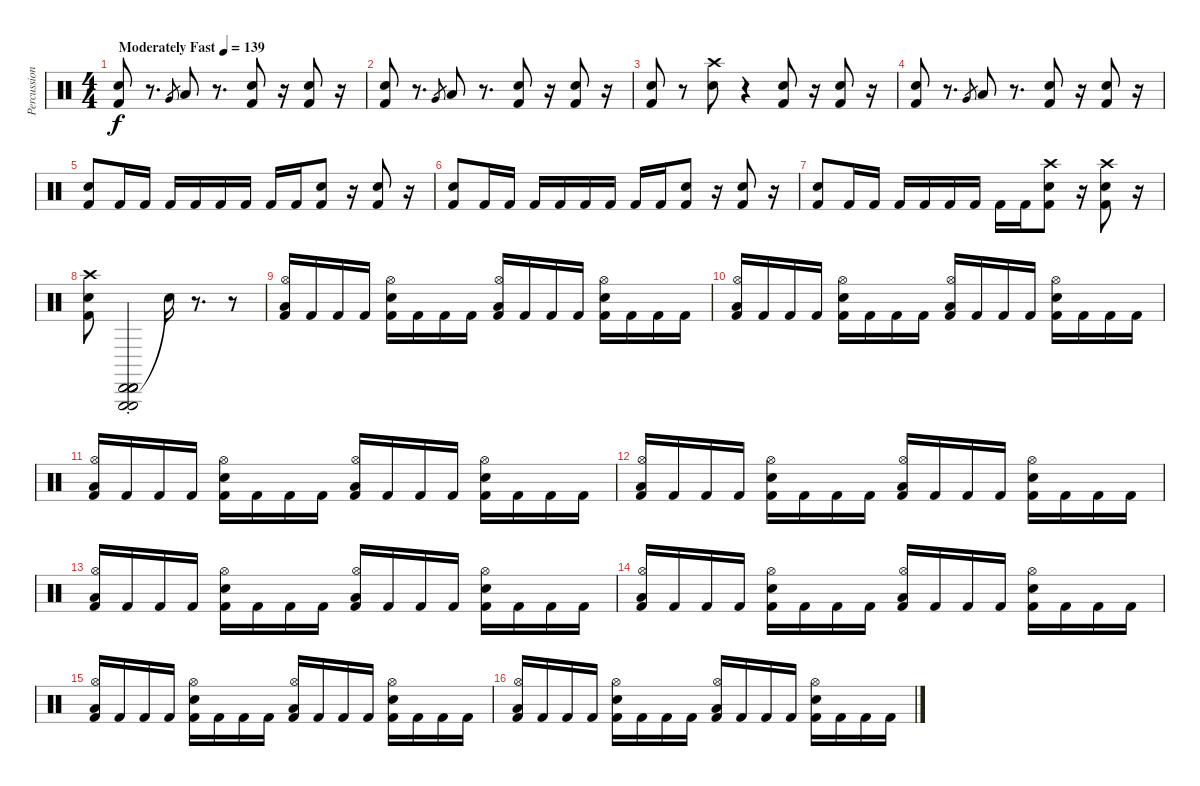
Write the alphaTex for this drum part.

\track ("Percussions" "Percussion") {instrument percussion}
\staff {score}
\articulation defaults
\ts (4 4)
\tempo (139 "Moderately Fast")
\clef neutral
\ks c
("Electric Snare (hit)" "Kick (hit) 2").8{dy f} r.8{d} "Very Low Tom (hit)"{sl}.8{gr} "Low Tom (hit)".8 r.8{d} ("Electric Snare (hit)" "Kick (hit) 2").8 r.16 ("Electric Snare (hit)" "Kick (hit) 2").8 r.16 |
("Electric Snare (hit)" "Kick (hit) 2").8 r.8{d} "Very Low Tom (hit)"{sl}.8{gr} "Low Tom (hit)".8 r.8{d} ("Electric Snare (hit)" "Kick (hit) 2").8 r.16 ("Electric Snare (hit)" "Kick (hit) 2").8 r.16 |
("Electric Snare (hit)" "Kick (hit) 2").8 r.8 ("Crash high (hit)" "Electric Snare (hit)").8 r.4 ("Electric Snare (hit)" "Kick (hit) 2").8 r.16 ("Electric Snare (hit)" "Kick (hit) 2").8 r.16 |
("Electric Snare (hit)" "Kick (hit) 2").8 r.8{d} "Very Low Tom (hit)"{sl}.8{gr} "Low Tom (hit)".8 r.8{d} ("Electric Snare (hit)" "Kick (hit) 2").8 r.16 ("Electric Snare (hit)" "Kick (hit) 2").8 r.16 |
("Electric Snare (hit)" "Kick (hit) 2").8 "Kick (hit) 2".16 "Kick (hit) 2".16 "Kick (hit) 2".16 "Kick (hit) 2".16 "Kick (hit) 2".16 "Kick (hit) 2".16 "Kick (hit) 2".16 "Kick (hit) 2".16 ("Electric Snare (hit)" "Kick (hit) 2").8 r.16 ("Electric Snare (hit)" "Kick (hit) 2").8 r.16 |
("Electric Snare (hit)" "Kick (hit) 2").8 "Kick (hit) 2".16 "Kick (hit) 2".16 "Kick (hit) 2".16 "Kick (hit) 2".16 "Kick (hit) 2".16 "Kick (hit) 2".16 "Kick (hit) 2".16 "Kick (hit) 2".16 ("Electric Snare (hit)" "Kick (hit) 2").8 r.16 ("Electric Snare (hit)" "Kick (hit) 2").8 r.16 |
("Electric Snare (hit)" "Kick (hit) 2").8 "Kick (hit) 2".16 "Kick (hit) 2".16 "Kick (hit) 2".16 "Kick (hit) 2".16 "Kick (hit) 2".16 "Kick (hit) 2".16 "Kick (hit) 2".16 "Kick (hit) 2".16 ("Crash high (hit)" "Electric Snare (hit)" "Kick (hit) 2").8 r.16 ("Crash high (hit)" "Electric Snare (hit)" "Kick (hit) 2").8 r.16 |
("Crash high (hit)" "Electric Snare (hit)" "Kick (hit) 2").8 ("Cabasa (hit)" "Triangle (hit)" "Cabasa (hit)" "Cabasa (hit)" "Cabasa (hit)"{st} "Triangle (hit)").2{volume 16} "Snare (hit)"{t}.16{volume 13} r.8{d} r.8 |
("Hi-Hat (open)" "Low Floor Tom (hit)" "Kick (hit) 2").16 "Kick (hit) 2".16 "Kick (hit) 2".16 "Kick (hit) 2".16 ("Hi-Hat (open)" "Electric Snare (hit)" "Kick (hit) 2").16 "Kick (hit) 2".16 "Kick (hit) 2".16 "Kick (hit) 2".16 ("Hi-Hat (open)" "Low Floor Tom (hit)" "Kick (hit) 2").16 "Kick (hit) 2".16 "Kick (hit) 2".16 "Kick (hit) 2".16 ("Hi-Hat (open)" "Electric Snare (hit)" "Kick (hit) 2").16 "Kick (hit) 2".16 "Kick (hit) 2".16 "Kick (hit) 2".16 |
("Hi-Hat (open)" "Low Floor Tom (hit)" "Kick (hit) 2").16 "Kick (hit) 2".16 "Kick (hit) 2".16 "Kick (hit) 2".16 ("Hi-Hat (open)" "Electric Snare (hit)" "Kick (hit) 2").16 "Kick (hit) 2".16 "Kick (hit) 2".16 "Kick (hit) 2".16 ("Hi-Hat (open)" "Low Floor Tom (hit)" "Kick (hit) 2").16 "Kick (hit) 2".16 "Kick (hit) 2".16 "Kick (hit) 2".16 ("Hi-Hat (open)" "Electric Snare (hit)" "Kick (hit) 2").16 "Kick (hit) 2".16 "Kick (hit) 2".16 "Kick (hit) 2".16 |
("Hi-Hat (open)" "Low Floor Tom (hit)" "Kick (hit) 2").16 "Kick (hit) 2".16 "Kick (hit) 2".16 "Kick (hit) 2".16 ("Hi-Hat (open)" "Electric Snare (hit)" "Kick (hit) 2").16 "Kick (hit) 2".16 "Kick (hit) 2".16 "Kick (hit) 2".16 ("Hi-Hat (open)" "Low Floor Tom (hit)" "Kick (hit) 2").16 "Kick (hit) 2".16 "Kick (hit) 2".16 "Kick (hit) 2".16 ("Hi-Hat (open)" "Electric Snare (hit)" "Kick (hit) 2").16 "Kick (hit) 2".16 "Kick (hit) 2".16 "Kick (hit) 2".16 |
("Hi-Hat (open)" "Low Floor Tom (hit)" "Kick (hit) 2").16 "Kick (hit) 2".16 "Kick (hit) 2".16 "Kick (hit) 2".16 ("Hi-Hat (open)" "Electric Snare (hit)" "Kick (hit) 2").16 "Kick (hit) 2".16 "Kick (hit) 2".16 "Kick (hit) 2".16 ("Hi-Hat (open)" "Low Floor Tom (hit)" "Kick (hit) 2").16 "Kick (hit) 2".16 "Kick (hit) 2".16 "Kick (hit) 2".16 ("Hi-Hat (open)" "Electric Snare (hit)" "Kick (hit) 2").16 "Kick (hit) 2".16 "Kick (hit) 2".16 "Kick (hit) 2".16 |
("Hi-Hat (open)" "Low Floor Tom (hit)" "Kick (hit) 2").16 "Kick (hit) 2".16 "Kick (hit) 2".16 "Kick (hit) 2".16 ("Hi-Hat (open)" "Electric Snare (hit)" "Kick (hit) 2").16 "Kick (hit) 2".16 "Kick (hit) 2".16 "Kick (hit) 2".16 ("Hi-Hat (open)" "Low Floor Tom (hit)" "Kick (hit) 2").16 "Kick (hit) 2".16 "Kick (hit) 2".16 "Kick (hit) 2".16 ("Hi-Hat (open)" "Electric Snare (hit)" "Kick (hit) 2").16 "Kick (hit) 2".16 "Kick (hit) 2".16 "Kick (hit) 2".16 |
("Hi-Hat (open)" "Low Floor Tom (hit)" "Kick (hit) 2").16 "Kick (hit) 2".16 "Kick (hit) 2".16 "Kick (hit) 2".16 ("Hi-Hat (open)" "Electric Snare (hit)" "Kick (hit) 2").16 "Kick (hit) 2".16 "Kick (hit) 2".16 "Kick (hit) 2".16 ("Hi-Hat (open)" "Low Floor Tom (hit)" "Kick (hit) 2").16 "Kick (hit) 2".16 "Kick (hit) 2".16 "Kick (hit) 2".16 ("Hi-Hat (open)" "Electric Snare (hit)" "Kick (hit) 2").16 "Kick (hit) 2".16 "Kick (hit) 2".16 "Kick (hit) 2".16 |
("Hi-Hat (open)" "Low Floor Tom (hit)" "Kick (hit) 2").16 "Kick (hit) 2".16 "Kick (hit) 2".16 "Kick (hit) 2".16 ("Hi-Hat (open)" "Electric Snare (hit)" "Kick (hit) 2").16 "Kick (hit) 2".16 "Kick (hit) 2".16 "Kick (hit) 2".16 ("Hi-Hat (open)" "Low Floor Tom (hit)" "Kick (hit) 2").16 "Kick (hit) 2".16 "Kick (hit) 2".16 "Kick (hit) 2".16 ("Hi-Hat (open)" "Electric Snare (hit)" "Kick (hit) 2").16 "Kick (hit) 2".16 "Kick (hit) 2".16 "Kick (hit) 2".16 |
("Hi-Hat (open)" "Low Floor Tom (hit)" "Kick (hit) 2").16 "Kick (hit) 2".16 "Kick (hit) 2".16 "Kick (hit) 2".16 ("Hi-Hat (open)" "Electric Snare (hit)" "Kick (hit) 2").16 "Kick (hit) 2".16 "Kick (hit) 2".16 "Kick (hit) 2".16 ("Hi-Hat (open)" "Low Floor Tom (hit)" "Kick (hit) 2").16 "Kick (hit) 2".16 "Kick (hit) 2".16 "Kick (hit) 2".16 ("Hi-Hat (open)" "Electric Snare (hit)" "Kick (hit) 2").16 "Kick (hit) 2".16 "Kick (hit) 2".16 "Kick (hit) 2".16
